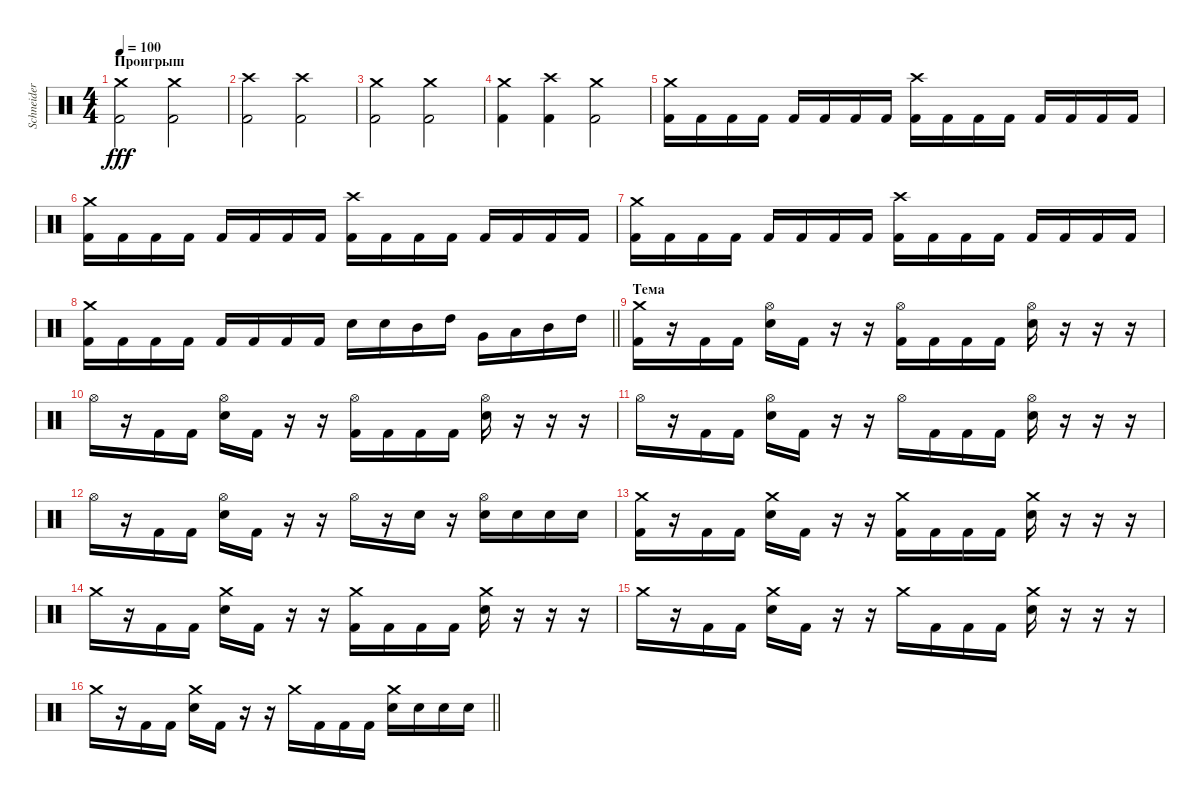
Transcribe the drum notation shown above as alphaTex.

\track ("Schneider" "Schneider") {instrument percussion}
\staff {score}
\articulation defaults
\ts (4 4)
\section ("" "Проигрыш")
\tempo 100
\clef neutral
\ks c
("Crash medium (hit)" "Kick (hit) 2").2{dy fff} ("Crash medium (hit)" "Kick (hit) 2").2 |
("Crash high (hit)" "Kick (hit) 2").2 ("Crash high (hit)" "Kick (hit) 2").2 |
("Crash medium (hit)" "Kick (hit) 2").2 ("Crash medium (hit)" "Kick (hit) 2").2 |
("Kick (hit) 2" "Crash medium (hit)").4 ("Kick (hit) 2" "Crash high (hit)").4 ("Kick (hit) 2" "Crash medium (hit)").2 |
("Crash medium (hit)" "Kick (hit) 2").16 "Kick (hit) 2".16 "Kick (hit) 2".16 "Kick (hit) 2".16 "Kick (hit) 2".16 "Kick (hit) 2".16 "Kick (hit) 2".16 "Kick (hit) 2".16 ("Crash high (hit)" "Kick (hit) 2").16 "Kick (hit) 2".16 "Kick (hit) 2".16 "Kick (hit) 2".16 "Kick (hit) 2".16 "Kick (hit) 2".16 "Kick (hit) 2".16 "Kick (hit) 2".16 |
("Crash medium (hit)" "Kick (hit) 2").16 "Kick (hit) 2".16 "Kick (hit) 2".16 "Kick (hit) 2".16 "Kick (hit) 2".16 "Kick (hit) 2".16 "Kick (hit) 2".16 "Kick (hit) 2".16 ("Crash high (hit)" "Kick (hit) 2").16 "Kick (hit) 2".16 "Kick (hit) 2".16 "Kick (hit) 2".16 "Kick (hit) 2".16 "Kick (hit) 2".16 "Kick (hit) 2".16 "Kick (hit) 2".16 |
("Crash medium (hit)" "Kick (hit) 2").16 "Kick (hit) 2".16 "Kick (hit) 2".16 "Kick (hit) 2".16 "Kick (hit) 2".16 "Kick (hit) 2".16 "Kick (hit) 2".16 "Kick (hit) 2".16 ("Crash high (hit)" "Kick (hit) 2").16 "Kick (hit) 2".16 "Kick (hit) 2".16 "Kick (hit) 2".16 "Kick (hit) 2".16 "Kick (hit) 2".16 "Kick (hit) 2".16 "Kick (hit) 2".16 |
\barLineRight lightlight
("Crash medium (hit)" "Kick (hit) 2").16 "Kick (hit) 2".16 "Kick (hit) 2".16 "Kick (hit) 2".16 "Kick (hit) 2".16 "Kick (hit) 2".16 "Kick (hit) 2".16 "Kick (hit) 2".16 "Electric Snare (hit)".16 "Electric Snare (hit)".16 "Mid Tom (hit)".16 "High Tom (hit)".16 "Very Low Tom (hit)".16 "Low Tom (hit)".16 "Mid Tom (hit)".16 "High Tom (hit)".16 |
\section ("" "Тема")
("Crash medium (hit)" "Kick (hit) 2").16 r.16 "Kick (hit) 2".16 "Kick (hit) 2".16 ("Hi-Hat (open)" "Electric Snare (hit)").16 "Kick (hit) 2".16 r.16 r.16 ("Hi-Hat (open)" "Kick (hit) 2").16 "Kick (hit) 2".16 "Kick (hit) 2".16 "Kick (hit) 2".16 ("Hi-Hat (open)" "Electric Snare (hit)").16 r.16 r.16 r.16 |
"Hi-Hat (open)".16 r.16 "Kick (hit) 2".16 "Kick (hit) 2".16 ("Hi-Hat (open)" "Electric Snare (hit)").16 "Kick (hit) 2".16 r.16 r.16 ("Hi-Hat (open)" "Kick (hit) 2").16 "Kick (hit) 2".16 "Kick (hit) 2".16 "Kick (hit) 2".16 ("Hi-Hat (open)" "Electric Snare (hit)").16 r.16 r.16 r.16 |
"Hi-Hat (open)".16 r.16 "Kick (hit) 2".16 "Kick (hit) 2".16 ("Hi-Hat (open)" "Electric Snare (hit)").16 "Kick (hit) 2".16 r.16 r.16 "Hi-Hat (open)".16 "Kick (hit) 2".16 "Kick (hit) 2".16 "Kick (hit) 2".16 ("Hi-Hat (open)" "Electric Snare (hit)").16 r.16 r.16 r.16 |
"Hi-Hat (open)".16 r.16 "Kick (hit) 2".16 "Kick (hit) 2".16 ("Hi-Hat (open)" "Electric Snare (hit)").16 "Kick (hit) 2".16 r.16 r.16 "Hi-Hat (open)".16 r.16 "Electric Snare (hit)".16 r.16 ("Hi-Hat (open)" "Electric Snare (hit)").16 "Electric Snare (hit)".16 "Electric Snare (hit)".16 "Electric Snare (hit)".16 |
("Crash medium (hit)" "Kick (hit) 2").16 r.16 "Kick (hit) 2".16 "Kick (hit) 2".16 ("Crash medium (hit)" "Electric Snare (hit)").16 "Kick (hit) 2".16 r.16 r.16 ("Crash medium (hit)" "Kick (hit) 2").16 "Kick (hit) 2".16 "Kick (hit) 2".16 "Kick (hit) 2".16 ("Crash medium (hit)" "Electric Snare (hit)").16 r.16 r.16 r.16 |
"Crash medium (hit)".16 r.16 "Kick (hit) 2".16 "Kick (hit) 2".16 ("Crash medium (hit)" "Electric Snare (hit)").16 "Kick (hit) 2".16 r.16 r.16 ("Crash medium (hit)" "Kick (hit) 2").16 "Kick (hit) 2".16 "Kick (hit) 2".16 "Kick (hit) 2".16 ("Crash medium (hit)" "Electric Snare (hit)").16 r.16 r.16 r.16 |
"Crash medium (hit)".16 r.16 "Kick (hit) 2".16 "Kick (hit) 2".16 ("Crash medium (hit)" "Electric Snare (hit)").16 "Kick (hit) 2".16 r.16 r.16 "Crash medium (hit)".16 "Kick (hit) 2".16 "Kick (hit) 2".16 "Kick (hit) 2".16 ("Crash medium (hit)" "Electric Snare (hit)").16 r.16 r.16 r.16 |
\barLineRight lightlight "Crash medium (hit)".16
r.16 "Kick (hit) 2".16 "Kick (hit) 2".16 ("Crash medium (hit)" "Electric Snare (hit)").16 "Kick (hit) 2".16 r.16 r.16 "Crash medium (hit)".16 "Kick (hit) 2".16 "Kick (hit) 2".16 "Kick (hit) 2".16 ("Crash medium (hit)" "Electric Snare (hit)").16 "Electric Snare (hit)".16 "Electric Snare (hit)".16 "Electric Snare (hit)".16
